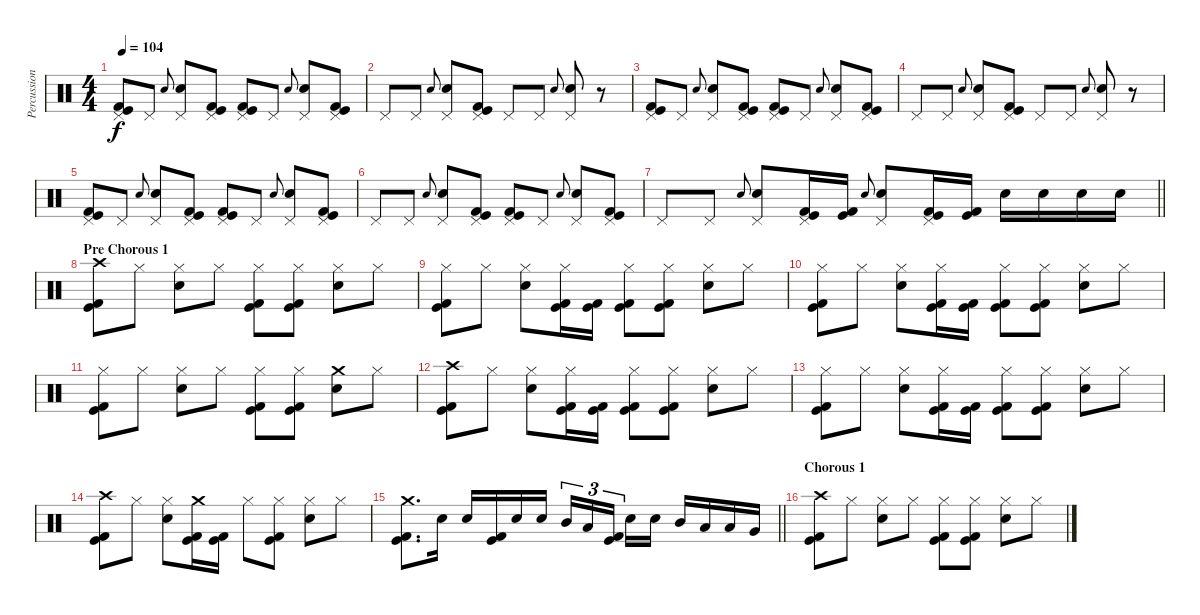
\track ("Percussion" "Percussion") {instrument percussion}
\staff {score}
\articulation defaults
\ts (4 4)
\section ("" "")
\tempo 104
\clef neutral
\ks c
("Pedal Hi-Hat (hit)" "Kick (hit)" "Kick (hit) 2").8{dy f} "Pedal Hi-Hat (hit)".8 "Electric Snare (hit)".8{gr onbeat} ("Pedal Hi-Hat (hit)" "Electric Snare (hit)").8 ("Pedal Hi-Hat (hit)" "Kick (hit)" "Kick (hit) 2").8 ("Pedal Hi-Hat (hit)" "Kick (hit)" "Kick (hit) 2").8 "Pedal Hi-Hat (hit)".8 "Electric Snare (hit)".8{gr onbeat} ("Pedal Hi-Hat (hit)" "Electric Snare (hit)").8 ("Pedal Hi-Hat (hit)" "Kick (hit)" "Kick (hit) 2").8 |
"Pedal Hi-Hat (hit)".8 "Pedal Hi-Hat (hit)".8 "Electric Snare (hit)".8{gr onbeat} ("Pedal Hi-Hat (hit)" "Electric Snare (hit)").8 ("Pedal Hi-Hat (hit)" "Kick (hit)" "Kick (hit) 2").8 "Pedal Hi-Hat (hit)".8 "Pedal Hi-Hat (hit)".8 "Electric Snare (hit)".8{gr onbeat} ("Pedal Hi-Hat (hit)" "Electric Snare (hit)").8 r.8 |
("Pedal Hi-Hat (hit)" "Kick (hit)" "Kick (hit) 2").8 "Pedal Hi-Hat (hit)".8 "Electric Snare (hit)".8{gr onbeat} ("Pedal Hi-Hat (hit)" "Electric Snare (hit)").8 ("Pedal Hi-Hat (hit)" "Kick (hit)" "Kick (hit) 2").8 ("Pedal Hi-Hat (hit)" "Kick (hit)" "Kick (hit) 2").8 "Pedal Hi-Hat (hit)".8 "Electric Snare (hit)".8{gr onbeat} ("Pedal Hi-Hat (hit)" "Electric Snare (hit)").8 ("Pedal Hi-Hat (hit)" "Kick (hit)" "Kick (hit) 2").8 |
"Pedal Hi-Hat (hit)".8 "Pedal Hi-Hat (hit)".8 "Electric Snare (hit)".8{gr onbeat} ("Pedal Hi-Hat (hit)" "Electric Snare (hit)").8 ("Pedal Hi-Hat (hit)" "Kick (hit)" "Kick (hit) 2").8 "Pedal Hi-Hat (hit)".8 "Pedal Hi-Hat (hit)".8 "Electric Snare (hit)".8{gr onbeat} ("Pedal Hi-Hat (hit)" "Electric Snare (hit)").8 r.8 |
("Pedal Hi-Hat (hit)" "Kick (hit)" "Kick (hit) 2").8 "Pedal Hi-Hat (hit)".8 "Electric Snare (hit)".8{gr onbeat} ("Pedal Hi-Hat (hit)" "Electric Snare (hit)").8 ("Pedal Hi-Hat (hit)" "Kick (hit)" "Kick (hit) 2").8 ("Pedal Hi-Hat (hit)" "Kick (hit)" "Kick (hit) 2").8 "Pedal Hi-Hat (hit)".8 "Electric Snare (hit)".8{gr onbeat} ("Pedal Hi-Hat (hit)" "Electric Snare (hit)").8 ("Pedal Hi-Hat (hit)" "Kick (hit)" "Kick (hit) 2").8 |
"Pedal Hi-Hat (hit)".8 "Pedal Hi-Hat (hit)".8 "Electric Snare (hit)".8{gr onbeat} ("Pedal Hi-Hat (hit)" "Electric Snare (hit)").8 ("Pedal Hi-Hat (hit)" "Kick (hit)" "Kick (hit) 2").8 ("Pedal Hi-Hat (hit)" "Kick (hit)" "Kick (hit) 2").8 "Pedal Hi-Hat (hit)".8 "Electric Snare (hit)".8{gr onbeat} ("Pedal Hi-Hat (hit)" "Electric Snare (hit)").8 ("Pedal Hi-Hat (hit)" "Kick (hit)" "Kick (hit) 2").8 |
\barLineRight lightlight "Pedal Hi-Hat (hit)".8 "Pedal Hi-Hat (hit)".8 "Electric Snare (hit)".8{gr onbeat}
("Pedal Hi-Hat (hit)" "Electric Snare (hit)").8 ("Pedal Hi-Hat (hit)" "Kick (hit)" "Kick (hit) 2").16 ("Kick (hit)" "Kick (hit) 2").16 "Electric Snare (hit)".8{gr onbeat} ("Pedal Hi-Hat (hit)" "Electric Snare (hit)").8 ("Pedal Hi-Hat (hit)" "Kick (hit)" "Kick (hit) 2").16 ("Kick (hit)" "Kick (hit) 2").16 "Electric Snare (hit)".16 "Electric Snare (hit)".16 "Electric Snare (hit)".16 "Electric Snare (hit)".16 |
\section ("" "Pre Chorous 1")
("Crash high (hit)" "Kick (hit)" "Kick (hit) 2").8 "Hi-Hat (closed)".8 ("Hi-Hat (closed)" "Electric Snare (hit)").8 "Hi-Hat (closed)".8 ("Hi-Hat (closed)" "Kick (hit)" "Kick (hit) 2").8 ("Hi-Hat (closed)" "Kick (hit)" "Kick (hit) 2").8 ("Hi-Hat (closed)" "Electric Snare (hit)").8 "Hi-Hat (closed)".8 |
("Hi-Hat (closed)" "Kick (hit)" "Kick (hit) 2").8 "Hi-Hat (closed)".8 ("Hi-Hat (closed)" "Electric Snare (hit)").8 ("Hi-Hat (closed)" "Kick (hit)" "Kick (hit) 2").16 ("Kick (hit)" "Kick (hit) 2").16 ("Hi-Hat (closed)" "Kick (hit)" "Kick (hit) 2").8 ("Hi-Hat (closed)" "Kick (hit)" "Kick (hit) 2").8 ("Hi-Hat (closed)" "Electric Snare (hit)").8 "Hi-Hat (closed)".8 |
("Hi-Hat (closed)" "Kick (hit)" "Kick (hit) 2").8 "Hi-Hat (closed)".8 ("Hi-Hat (closed)" "Electric Snare (hit)").8 ("Hi-Hat (closed)" "Kick (hit)" "Kick (hit) 2").16 ("Kick (hit)" "Kick (hit) 2").16 ("Hi-Hat (closed)" "Kick (hit)" "Kick (hit) 2").8 ("Hi-Hat (closed)" "Kick (hit)" "Kick (hit) 2").8 ("Hi-Hat (closed)" "Electric Snare (hit)").8 "Hi-Hat (closed)".8 |
("Hi-Hat (closed)" "Kick (hit)" "Kick (hit) 2").8 "Hi-Hat (closed)".8 ("Hi-Hat (closed)" "Electric Snare (hit)").8 "Hi-Hat (closed)".8 ("Hi-Hat (closed)" "Kick (hit)" "Kick (hit) 2").8 ("Hi-Hat (closed)" "Kick (hit)" "Kick (hit) 2").8 ("Crash medium (hit)" "Electric Snare (hit)").8 "Hi-Hat (closed)".8 |
("Crash high (hit)" "Kick (hit)" "Kick (hit) 2").8 "Hi-Hat (closed)".8 ("Hi-Hat (closed)" "Electric Snare (hit)").8 ("Hi-Hat (closed)" "Kick (hit)" "Kick (hit) 2").16 ("Kick (hit)" "Kick (hit) 2").16 ("Hi-Hat (closed)" "Kick (hit)" "Kick (hit) 2").8 ("Hi-Hat (closed)" "Kick (hit)" "Kick (hit) 2").8 ("Hi-Hat (closed)" "Electric Snare (hit)").8 "Hi-Hat (closed)".8 |
("Hi-Hat (closed)" "Kick (hit)" "Kick (hit) 2").8 "Hi-Hat (closed)".8 ("Hi-Hat (closed)" "Electric Snare (hit)").8 ("Hi-Hat (closed)" "Kick (hit)" "Kick (hit) 2").16 ("Kick (hit)" "Kick (hit) 2").16 ("Hi-Hat (closed)" "Kick (hit)" "Kick (hit) 2").8 ("Hi-Hat (closed)" "Kick (hit)" "Kick (hit) 2").8 ("Hi-Hat (closed)" "Electric Snare (hit)").8 "Hi-Hat (closed)".8 |
("Crash high (hit)" "Kick (hit)" "Kick (hit) 2").8 "Hi-Hat (closed)".8 ("Hi-Hat (closed)" "Electric Snare (hit)").8 ("Crash medium (hit)" "Kick (hit)" "Kick (hit) 2").16 ("Kick (hit)" "Kick (hit) 2").16 "Hi-Hat (closed)".8 ("Hi-Hat (closed)" "Kick (hit)" "Kick (hit) 2").8 ("Hi-Hat (closed)" "Electric Snare (hit)").8 "Hi-Hat (closed)".8 |
\barLineRight lightlight
("Crash medium (hit)" "Kick (hit)" "Kick (hit) 2").8{d} "Electric Snare (hit)".16 "Electric Snare (hit)".16 ("Kick (hit)" "Kick (hit) 2").16 "Electric Snare (hit)".16 "Electric Snare (hit)".16 "Mid Tom (hit)".16{tu (3 2)} "Low Tom (hit)".16{tu (3 2)} ("Kick (hit)" "Kick (hit) 2").16{tu (3 2) beam splitsecondary} "Electric Snare (hit)".16 "Electric Snare (hit)".16 "Mid Tom (hit)".16 "Low Tom (hit)".16 "Low Tom (hit)".16 "Very Low Tom (hit)".16 |
\section ("" "Chorous 1")
("Crash high (hit)" "Kick (hit)" "Kick (hit) 2").8 "Hi-Hat (closed)".8 ("Hi-Hat (closed)" "Electric Snare (hit)").8 "Hi-Hat (closed)".8 ("Hi-Hat (closed)" "Kick (hit)" "Kick (hit) 2").8 ("Hi-Hat (closed)" "Kick (hit)" "Kick (hit) 2").8 ("Hi-Hat (closed)" "Electric Snare (hit)").8 "Hi-Hat (closed)".8
